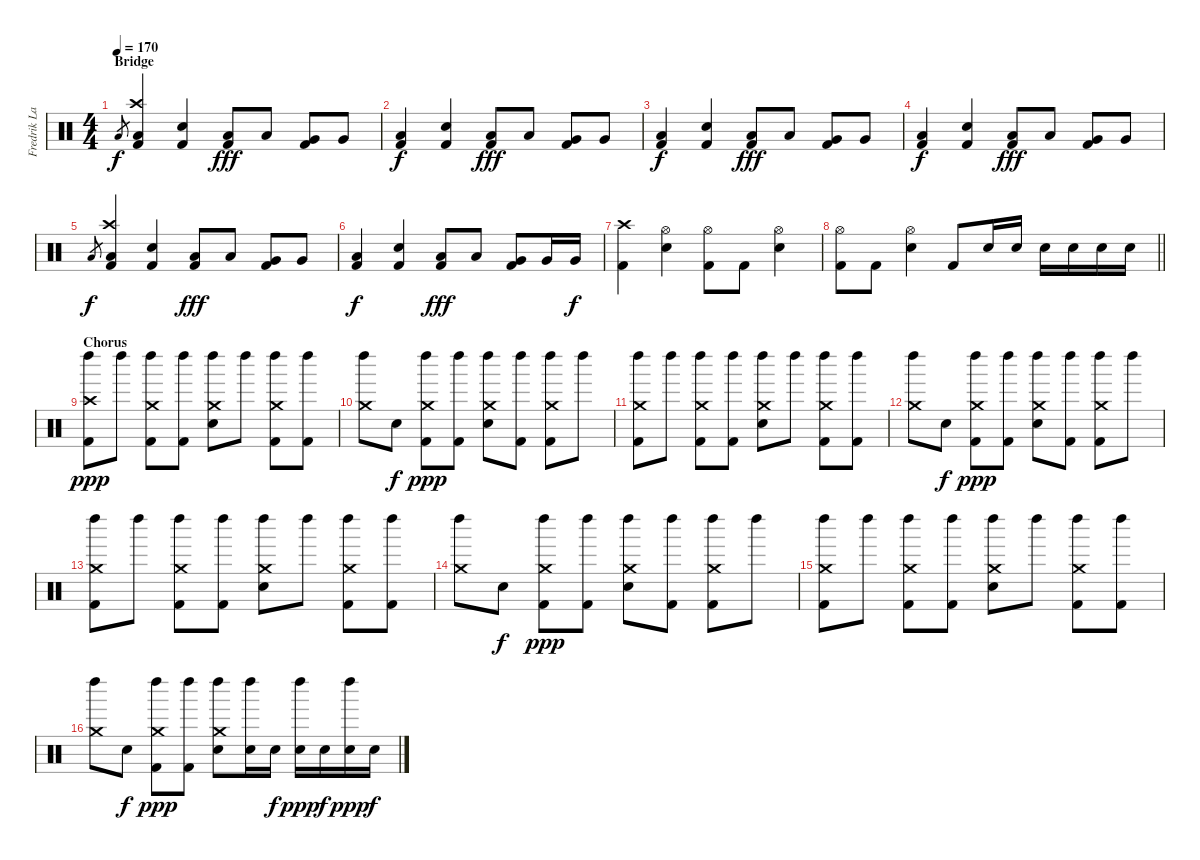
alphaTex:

\track ("Fredrik Larzon - Percussion" "Fredrik La") {instrument percussion}
\staff {score}
\articulation defaults
\ts (4 4)
\section ("" "Bridge")
\tempo 170
\clef neutral
\ks c "Low Floor Tom (hit)".8{gr dy f}
("Crash high (hit)" "Low Floor Tom (hit)" "Kick (hit) 2").4 ("Electric Snare (hit)" "Kick (hit) 2").4 ("Low Floor Tom (hit)" "Kick (hit) 2").8{dy fff} "Low Floor Tom (hit)".8 ("Very Low Tom (hit)" "Kick (hit) 2").8 "Very Low Tom (hit)".8 |
("Low Floor Tom (hit)" "Kick (hit) 2").4{dy f} ("Electric Snare (hit)" "Kick (hit) 2").4 ("Low Floor Tom (hit)" "Kick (hit) 2").8{dy fff} "Low Floor Tom (hit)".8 ("Very Low Tom (hit)" "Kick (hit) 2").8 "Very Low Tom (hit)".8 |
("Low Floor Tom (hit)" "Kick (hit) 2").4{dy f} ("Electric Snare (hit)" "Kick (hit) 2").4 ("Low Floor Tom (hit)" "Kick (hit) 2").8{dy fff} "Low Floor Tom (hit)".8 ("Very Low Tom (hit)" "Kick (hit) 2").8 "Very Low Tom (hit)".8 |
("Low Floor Tom (hit)" "Kick (hit) 2").4{dy f} ("Electric Snare (hit)" "Kick (hit) 2").4 ("Low Floor Tom (hit)" "Kick (hit) 2").8{dy fff} "Low Floor Tom (hit)".8 ("Very Low Tom (hit)" "Kick (hit) 2").8 "Very Low Tom (hit)".8 |
"Low Floor Tom (hit)".8{gr dy f} ("Crash high (hit)" "Low Floor Tom (hit)" "Kick (hit) 2").4 ("Electric Snare (hit)" "Kick (hit) 2").4 ("Low Floor Tom (hit)" "Kick (hit) 2").8{dy fff} "Low Floor Tom (hit)".8 ("Very Low Tom (hit)" "Kick (hit) 2").8 "Very Low Tom (hit)".8 |
("Low Floor Tom (hit)" "Kick (hit) 2").4{dy f} ("Electric Snare (hit)" "Kick (hit) 2").4 ("Low Floor Tom (hit)" "Kick (hit) 2").8{dy fff} "Low Floor Tom (hit)".8 ("Very Low Tom (hit)" "Kick (hit) 2").8 "Very Low Tom (hit)".16 "Very Low Tom (hit)".16{dy f} |
("Crash high (hit)" "Kick (hit) 2").4 ("Hi-Hat (open)" "Electric Snare (hit)").4 ("Hi-Hat (open)" "Kick (hit) 2").8 "Kick (hit) 2".8 ("Hi-Hat (open)" "Electric Snare (hit)").4 |
\barLineRight lightlight
("Hi-Hat (open)" "Kick (hit) 2").8 "Kick (hit) 2".8 ("Hi-Hat (open)" "Electric Snare (hit)").4 "Kick (hit) 2".8 "Electric Snare (hit)".16 "Electric Snare (hit)".16 "Electric Snare (hit)".16 "Electric Snare (hit)".16 "Electric Snare (hit)".16 "Electric Snare (hit)".16 |
\section ("" "Chorus")
("Crash high (hit)" "Left Maraca (hit)" "Kick (hit) 2").8{dy ppp} "Left Maraca (hit)".8 ("Crash medium (hit)" "Left Maraca (hit)" "Kick (hit) 2").8 ("Left Maraca (hit)" "Kick (hit) 2").8 ("Crash medium (hit)" "Left Maraca (hit)" "Electric Snare (hit)").8 "Left Maraca (hit)".8 ("Crash medium (hit)" "Left Maraca (hit)" "Kick (hit) 2").8 ("Left Maraca (hit)" "Kick (hit) 2").8 |
("Crash medium (hit)" "Left Maraca (hit)").8 "Electric Snare (hit)".8{dy f} ("Crash medium (hit)" "Left Maraca (hit)" "Kick (hit) 2").8{dy ppp} ("Left Maraca (hit)" "Kick (hit) 2").8 ("Crash medium (hit)" "Left Maraca (hit)" "Electric Snare (hit)").8 ("Left Maraca (hit)" "Kick (hit) 2").8 ("Crash medium (hit)" "Left Maraca (hit)" "Kick (hit) 2").8 "Left Maraca (hit)".8 |
("Crash medium (hit)" "Left Maraca (hit)" "Kick (hit) 2").8 "Left Maraca (hit)".8 ("Crash medium (hit)" "Left Maraca (hit)" "Kick (hit) 2").8 ("Left Maraca (hit)" "Kick (hit) 2").8 ("Crash medium (hit)" "Left Maraca (hit)" "Electric Snare (hit)").8 "Left Maraca (hit)".8 ("Crash medium (hit)" "Left Maraca (hit)" "Kick (hit) 2").8 ("Left Maraca (hit)" "Kick (hit) 2").8 |
("Crash medium (hit)" "Left Maraca (hit)").8 "Electric Snare (hit)".8{dy f} ("Crash medium (hit)" "Left Maraca (hit)" "Kick (hit) 2").8{dy ppp} ("Left Maraca (hit)" "Kick (hit) 2").8 ("Crash medium (hit)" "Left Maraca (hit)" "Electric Snare (hit)").8 ("Left Maraca (hit)" "Kick (hit) 2").8 ("Crash medium (hit)" "Left Maraca (hit)" "Kick (hit) 2").8 "Left Maraca (hit)".8 |
("Crash medium (hit)" "Left Maraca (hit)" "Kick (hit) 2").8 "Left Maraca (hit)".8 ("Crash medium (hit)" "Left Maraca (hit)" "Kick (hit) 2").8 ("Left Maraca (hit)" "Kick (hit) 2").8 ("Crash medium (hit)" "Left Maraca (hit)" "Electric Snare (hit)").8 "Left Maraca (hit)".8 ("Crash medium (hit)" "Left Maraca (hit)" "Kick (hit) 2").8 ("Left Maraca (hit)" "Kick (hit) 2").8 |
("Crash medium (hit)" "Left Maraca (hit)").8 "Electric Snare (hit)".8{dy f} ("Crash medium (hit)" "Left Maraca (hit)" "Kick (hit) 2").8{dy ppp} ("Left Maraca (hit)" "Kick (hit) 2").8 ("Crash medium (hit)" "Left Maraca (hit)" "Electric Snare (hit)").8 ("Left Maraca (hit)" "Kick (hit) 2").8 ("Crash medium (hit)" "Left Maraca (hit)" "Kick (hit) 2").8 "Left Maraca (hit)".8 |
("Crash medium (hit)" "Left Maraca (hit)" "Kick (hit) 2").8 "Left Maraca (hit)".8 ("Crash medium (hit)" "Left Maraca (hit)" "Kick (hit) 2").8 ("Left Maraca (hit)" "Kick (hit) 2").8 ("Crash medium (hit)" "Left Maraca (hit)" "Electric Snare (hit)").8 "Left Maraca (hit)".8 ("Crash medium (hit)" "Left Maraca (hit)" "Kick (hit) 2").8 ("Left Maraca (hit)" "Kick (hit) 2").8 |
("Crash medium (hit)" "Left Maraca (hit)").8 "Electric Snare (hit)".8{dy f} ("Crash medium (hit)" "Left Maraca (hit)" "Kick (hit) 2").8{dy ppp} ("Left Maraca (hit)" "Kick (hit) 2").8 ("Crash medium (hit)" "Left Maraca (hit)" "Electric Snare (hit)").8 ("Left Maraca (hit)" "Electric Snare (hit)").16 "Electric Snare (hit)".16{dy f} ("Left Maraca (hit)" "Electric Snare (hit)").16{dy ppp} "Electric Snare (hit)".16{dy f} ("Left Maraca (hit)" "Electric Snare (hit)").16{dy ppp} "Electric Snare (hit)".16{dy f}
